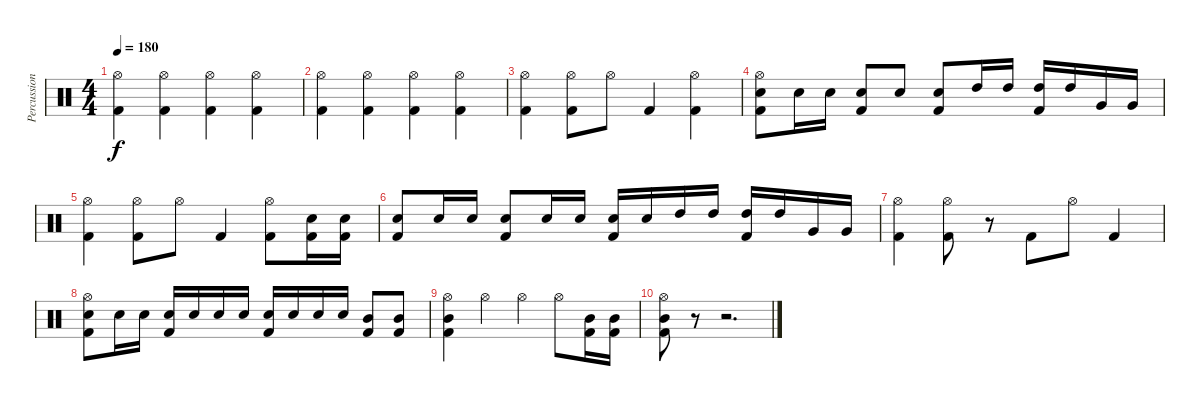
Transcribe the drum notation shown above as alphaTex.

\track ("Percussion" "Percussion") {instrument percussion}
\staff {score}
\articulation defaults
\ts (4 4)
\tempo 180
\clef neutral
\ks c
("Hi-Hat (open)" "Kick (hit) 2").4{dy f} ("Hi-Hat (open)" "Kick (hit) 2").4 ("Hi-Hat (open)" "Kick (hit) 2").4 ("Hi-Hat (open)" "Kick (hit) 2").4 |
("Hi-Hat (open)" "Kick (hit) 2").4 ("Hi-Hat (open)" "Kick (hit) 2").4 ("Hi-Hat (open)" "Kick (hit) 2").4 ("Hi-Hat (open)" "Kick (hit) 2").4 |
("Hi-Hat (open)" "Kick (hit) 2").4 ("Hi-Hat (open)" "Kick (hit) 2").8 "Hi-Hat (open)".8 "Kick (hit) 2".4 ("Hi-Hat (open)" "Kick (hit) 2").4 |
("Hi-Hat (open)" "Electric Snare (hit)" "Kick (hit) 2").8 "Electric Snare (hit)".16 "Electric Snare (hit)".16 ("Electric Snare (hit)" "Kick (hit) 2").8 "Electric Snare (hit)".8 ("Electric Snare (hit)" "Kick (hit) 2").8 "High Tom (hit)".16 "High Tom (hit)".16 ("High Tom (hit)" "Kick (hit) 2").16 "High Tom (hit)".16 "Very Low Tom (hit)".16 "Very Low Tom (hit)".16 |
("Hi-Hat (open)" "Kick (hit) 2").4 ("Hi-Hat (open)" "Kick (hit) 2").8 "Hi-Hat (open)".8 "Kick (hit) 2".4 ("Hi-Hat (open)" "Kick (hit) 2").8 ("Electric Snare (hit)" "Kick (hit) 2").16 ("Electric Snare (hit)" "Kick (hit) 2").16 |
("Electric Snare (hit)" "Kick (hit) 2").8 "Electric Snare (hit)".16 "Electric Snare (hit)".16 ("Electric Snare (hit)" "Kick (hit) 2").8 "Electric Snare (hit)".16 "Electric Snare (hit)".16 ("Electric Snare (hit)" "Kick (hit) 2").16 "Electric Snare (hit)".16 "High Tom (hit)".16 "High Tom (hit)".16 ("High Tom (hit)" "Kick (hit) 2").16 "High Tom (hit)".16 "Very Low Tom (hit)".16 "Very Low Tom (hit)".16 |
("Hi-Hat (open)" "Kick (hit) 2").4 ("Hi-Hat (open)" "Kick (hit) 2").8 r.8 "Kick (hit) 2".8 "Hi-Hat (open)".8 "Kick (hit) 2".4 |
("Hi-Hat (open)" "Electric Snare (hit)" "Kick (hit) 2").8 "Electric Snare (hit)".16 "Electric Snare (hit)".16 ("Electric Snare (hit)" "Kick (hit) 2").16 "Electric Snare (hit)".16 "Electric Snare (hit)".16 "Electric Snare (hit)".16 ("Electric Snare (hit)" "Kick (hit) 2").16 "Electric Snare (hit)".16 "Electric Snare (hit)".16 "Electric Snare (hit)".16 ("Mid Tom (hit)" "Kick (hit) 2").8 ("Mid Tom (hit)" "Kick (hit) 2").8 |
("Hi-Hat (open)" "Mid Tom (hit)" "Kick (hit) 2").4 "Hi-Hat (open)".4 "Hi-Hat (open)".4 "Hi-Hat (open)".8 ("Mid Tom (hit)" "Kick (hit) 2").16 ("Mid Tom (hit)" "Kick (hit) 2").16 |
("Hi-Hat (open)" "Mid Tom (hit)" "Kick (hit) 2").8 r.8 r.2{d}
